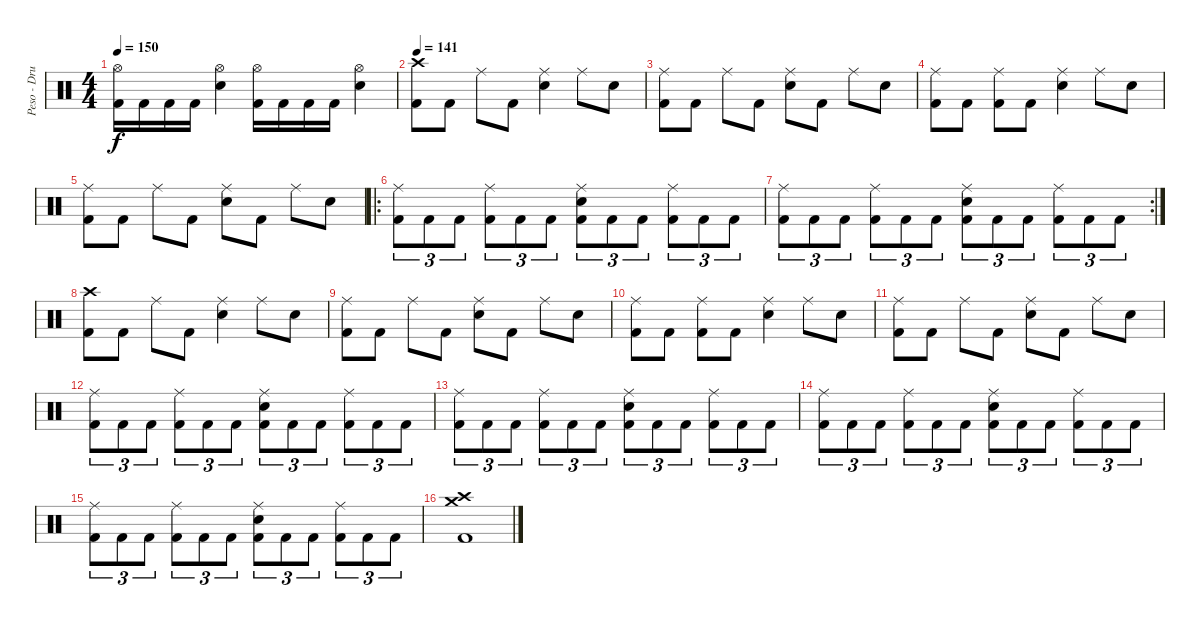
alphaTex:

\track ("Peso - Drums" "Peso - Dru") {instrument percussion}
\staff {score}
\articulation defaults
\ts (4 4)
\tempo 150
\clef neutral
\ks c
("Hi-Hat (open)" "Kick (hit) 2").16{dy f} "Kick (hit) 2".16 "Kick (hit) 2".16 "Kick (hit) 2".16 ("Hi-Hat (open)" "Electric Snare (hit)").4 ("Hi-Hat (open)" "Kick (hit) 2").16 "Kick (hit) 2".16 "Kick (hit) 2".16 "Kick (hit) 2".16 ("Hi-Hat (open)" "Electric Snare (hit)").4 |
\tempo 141
("Crash high (hit)" "Kick (hit) 2").8 "Kick (hit) 2".8 "Ride (middle)".8 "Kick (hit) 2".8 ("Ride (middle)" "Electric Snare (hit)").4 "Ride (middle)".8 "Electric Snare (hit)".8 |
("Ride (middle)" "Kick (hit) 2").8 "Kick (hit) 2".8 "Ride (middle)".8 "Kick (hit) 2".8 ("Ride (middle)" "Electric Snare (hit)").8 "Kick (hit) 2".8 "Ride (middle)".8 "Electric Snare (hit)".8 |
("Ride (middle)" "Kick (hit) 2").8 "Kick (hit) 2".8 ("Ride (middle)" "Kick (hit) 2").8 "Kick (hit) 2".8 ("Ride (middle)" "Electric Snare (hit)").4 "Ride (middle)".8 "Electric Snare (hit)".8 |
("Ride (middle)" "Kick (hit) 2").8 "Kick (hit) 2".8 "Ride (middle)".8 "Kick (hit) 2".8 ("Ride (middle)" "Electric Snare (hit)").8 "Kick (hit) 2".8 "Ride (middle)".8 "Electric Snare (hit)".8 |
\ro
("Ride (middle)" "Kick (hit) 2").8{tu (3 2)} "Kick (hit) 2".8{tu (3 2)} "Kick (hit) 2".8{tu (3 2)} ("Ride (middle)" "Kick (hit) 2").8{tu (3 2)} "Kick (hit) 2".8{tu (3 2)} "Kick (hit) 2".8{tu (3 2)} ("Ride (middle)" "Electric Snare (hit)" "Kick (hit) 2").8{tu (3 2)} "Kick (hit) 2".8{tu (3 2)} "Kick (hit) 2".8{tu (3 2)} ("Ride (middle)" "Kick (hit) 2").8{tu (3 2)} "Kick (hit) 2".8{tu (3 2)} "Kick (hit) 2".8{tu (3 2)} |
\rc 2
("Ride (middle)" "Kick (hit) 2").8{tu (3 2)} "Kick (hit) 2".8{tu (3 2)} "Kick (hit) 2".8{tu (3 2)} ("Ride (middle)" "Kick (hit) 2").8{tu (3 2)} "Kick (hit) 2".8{tu (3 2)} "Kick (hit) 2".8{tu (3 2)} ("Ride (middle)" "Electric Snare (hit)" "Kick (hit) 2").8{tu (3 2)} "Kick (hit) 2".8{tu (3 2)} "Kick (hit) 2".8{tu (3 2)} ("Ride (middle)" "Kick (hit) 2").8{tu (3 2)} "Kick (hit) 2".8{tu (3 2)} "Kick (hit) 2".8{tu (3 2)} |
("Crash high (hit)" "Kick (hit) 2").8 "Kick (hit) 2".8 "Ride (middle)".8 "Kick (hit) 2".8 ("Ride (middle)" "Electric Snare (hit)").4 "Ride (middle)".8 "Electric Snare (hit)".8 |
("Ride (middle)" "Kick (hit) 2").8 "Kick (hit) 2".8 "Ride (middle)".8 "Kick (hit) 2".8 ("Ride (middle)" "Electric Snare (hit)").8 "Kick (hit) 2".8 "Ride (middle)".8 "Electric Snare (hit)".8 |
("Ride (middle)" "Kick (hit) 2").8 "Kick (hit) 2".8 ("Ride (middle)" "Kick (hit) 2").8 "Kick (hit) 2".8 ("Ride (middle)" "Electric Snare (hit)").4 "Ride (middle)".8 "Electric Snare (hit)".8 |
("Ride (middle)" "Kick (hit) 2").8 "Kick (hit) 2".8 "Ride (middle)".8 "Kick (hit) 2".8 ("Ride (middle)" "Electric Snare (hit)").8 "Kick (hit) 2".8 "Ride (middle)".8 "Electric Snare (hit)".8 |
("Ride (middle)" "Kick (hit) 2").8{tu (3 2)} "Kick (hit) 2".8{tu (3 2)} "Kick (hit) 2".8{tu (3 2)} ("Ride (middle)" "Kick (hit) 2").8{tu (3 2)} "Kick (hit) 2".8{tu (3 2)} "Kick (hit) 2".8{tu (3 2)} ("Ride (middle)" "Electric Snare (hit)" "Kick (hit) 2").8{tu (3 2)} "Kick (hit) 2".8{tu (3 2)} "Kick (hit) 2".8{tu (3 2)} ("Ride (middle)" "Kick (hit) 2").8{tu (3 2)} "Kick (hit) 2".8{tu (3 2)} "Kick (hit) 2".8{tu (3 2)} |
("Ride (middle)" "Kick (hit) 2").8{tu (3 2)} "Kick (hit) 2".8{tu (3 2)} "Kick (hit) 2".8{tu (3 2)} ("Ride (middle)" "Kick (hit) 2").8{tu (3 2)} "Kick (hit) 2".8{tu (3 2)} "Kick (hit) 2".8{tu (3 2)} ("Ride (middle)" "Electric Snare (hit)" "Kick (hit) 2").8{tu (3 2)} "Kick (hit) 2".8{tu (3 2)} "Kick (hit) 2".8{tu (3 2)} ("Ride (middle)" "Kick (hit) 2").8{tu (3 2)} "Kick (hit) 2".8{tu (3 2)} "Kick (hit) 2".8{tu (3 2)} |
("Ride (middle)" "Kick (hit) 2").8{tu (3 2)} "Kick (hit) 2".8{tu (3 2)} "Kick (hit) 2".8{tu (3 2)} ("Ride (middle)" "Kick (hit) 2").8{tu (3 2)} "Kick (hit) 2".8{tu (3 2)} "Kick (hit) 2".8{tu (3 2)} ("Ride (middle)" "Electric Snare (hit)" "Kick (hit) 2").8{tu (3 2)} "Kick (hit) 2".8{tu (3 2)} "Kick (hit) 2".8{tu (3 2)} ("Ride (middle)" "Kick (hit) 2").8{tu (3 2)} "Kick (hit) 2".8{tu (3 2)} "Kick (hit) 2".8{tu (3 2)} |
("Ride (middle)" "Kick (hit) 2").8{tu (3 2)} "Kick (hit) 2".8{tu (3 2)} "Kick (hit) 2".8{tu (3 2)} ("Ride (middle)" "Kick (hit) 2").8{tu (3 2)} "Kick (hit) 2".8{tu (3 2)} "Kick (hit) 2".8{tu (3 2)} ("Ride (middle)" "Electric Snare (hit)" "Kick (hit) 2").8{tu (3 2)} "Kick (hit) 2".8{tu (3 2)} "Kick (hit) 2".8{tu (3 2)} ("Ride (middle)" "Kick (hit) 2").8{tu (3 2)} "Kick (hit) 2".8{tu (3 2)} "Kick (hit) 2".8{tu (3 2)} |
("Crash medium (hit)" "Crash high (hit)" "Kick (hit) 2").1
